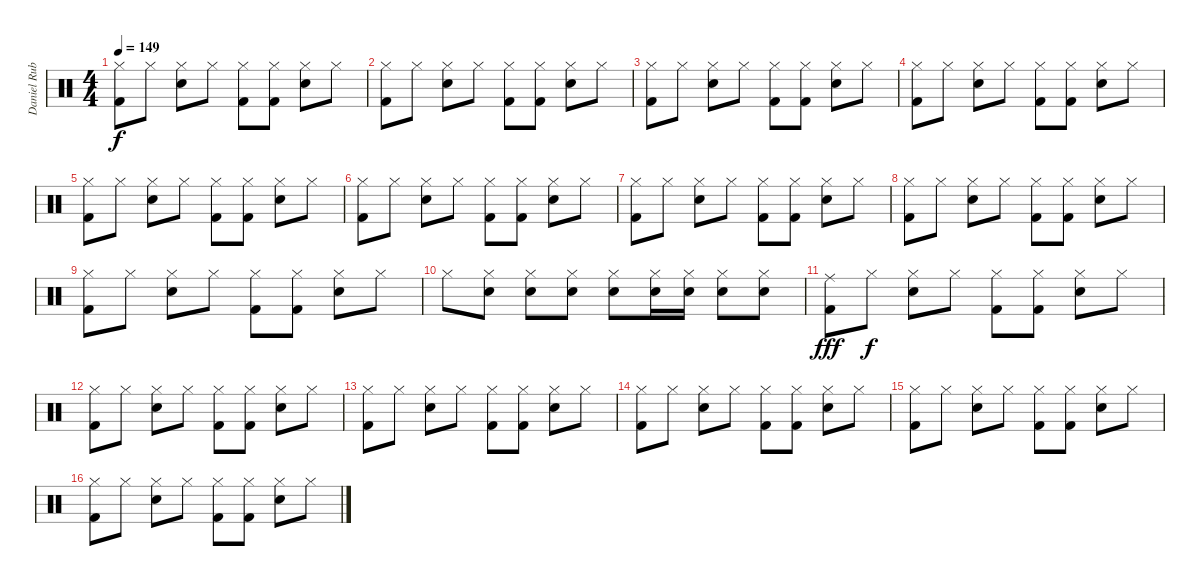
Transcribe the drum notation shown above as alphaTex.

\track ("Daniel Rubiano" "Daniel Rub") {instrument percussion}
\staff {score}
\articulation defaults
\ts (4 4)
\tempo 149
\clef neutral
\ks c
("Hi-Hat (closed)" "Kick (hit) 2").8{dy f} "Hi-Hat (closed)".8 ("Hi-Hat (closed)" "Snare (hit) 2").8 "Hi-Hat (closed)".8 ("Hi-Hat (closed)" "Kick (hit) 2").8 ("Hi-Hat (closed)" "Kick (hit) 2").8 ("Hi-Hat (closed)" "Snare (hit) 2").8 "Hi-Hat (closed)".8 |
("Hi-Hat (closed)" "Kick (hit) 2").8 "Hi-Hat (closed)".8 ("Hi-Hat (closed)" "Snare (hit) 2").8 "Hi-Hat (closed)".8 ("Hi-Hat (closed)" "Kick (hit) 2").8 ("Hi-Hat (closed)" "Kick (hit) 2").8 ("Hi-Hat (closed)" "Snare (hit) 2").8 "Hi-Hat (closed)".8 |
("Hi-Hat (closed)" "Kick (hit) 2").8 "Hi-Hat (closed)".8 ("Hi-Hat (closed)" "Snare (hit) 2").8 "Hi-Hat (closed)".8 ("Hi-Hat (closed)" "Kick (hit) 2").8 ("Hi-Hat (closed)" "Kick (hit) 2").8 ("Hi-Hat (closed)" "Snare (hit) 2").8 "Hi-Hat (closed)".8 |
("Hi-Hat (closed)" "Kick (hit) 2").8 "Hi-Hat (closed)".8 ("Hi-Hat (closed)" "Snare (hit) 2").8 "Hi-Hat (closed)".8 ("Hi-Hat (closed)" "Kick (hit) 2").8 ("Hi-Hat (closed)" "Kick (hit) 2").8 ("Hi-Hat (closed)" "Snare (hit) 2").8 "Hi-Hat (closed)".8 |
("Hi-Hat (closed)" "Kick (hit) 2").8 "Hi-Hat (closed)".8 ("Hi-Hat (closed)" "Snare (hit) 2").8 "Hi-Hat (closed)".8 ("Hi-Hat (closed)" "Kick (hit) 2").8 ("Hi-Hat (closed)" "Kick (hit) 2").8 ("Hi-Hat (closed)" "Snare (hit) 2").8 "Hi-Hat (closed)".8 |
("Hi-Hat (closed)" "Kick (hit) 2").8 "Hi-Hat (closed)".8 ("Hi-Hat (closed)" "Snare (hit) 2").8 "Hi-Hat (closed)".8 ("Hi-Hat (closed)" "Kick (hit) 2").8 ("Hi-Hat (closed)" "Kick (hit) 2").8 ("Hi-Hat (closed)" "Snare (hit) 2").8 "Hi-Hat (closed)".8 |
("Hi-Hat (closed)" "Kick (hit) 2").8 "Hi-Hat (closed)".8 ("Hi-Hat (closed)" "Snare (hit) 2").8 "Hi-Hat (closed)".8 ("Hi-Hat (closed)" "Kick (hit) 2").8 ("Hi-Hat (closed)" "Kick (hit) 2").8 ("Hi-Hat (closed)" "Snare (hit) 2").8 "Hi-Hat (closed)".8 |
("Hi-Hat (closed)" "Kick (hit) 2").8 "Hi-Hat (closed)".8 ("Hi-Hat (closed)" "Snare (hit) 2").8 "Hi-Hat (closed)".8 ("Hi-Hat (closed)" "Kick (hit) 2").8 ("Hi-Hat (closed)" "Kick (hit) 2").8 ("Hi-Hat (closed)" "Snare (hit) 2").8 "Hi-Hat (closed)".8 |
("Hi-Hat (closed)" "Kick (hit) 2").8 "Hi-Hat (closed)".8 ("Hi-Hat (closed)" "Snare (hit) 2").8 "Hi-Hat (closed)".8 ("Hi-Hat (closed)" "Kick (hit) 2").8 ("Hi-Hat (closed)" "Kick (hit) 2").8 ("Hi-Hat (closed)" "Snare (hit) 2").8 "Hi-Hat (closed)".8 |
"Hi-Hat (closed)".8 ("Hi-Hat (closed)" "Snare (hit) 2").8 ("Hi-Hat (closed)" "Snare (hit) 2").8 ("Hi-Hat (closed)" "Snare (hit) 2").8 ("Hi-Hat (closed)" "Snare (hit) 2").8 ("Hi-Hat (closed)" "Snare (hit) 2").16 ("Hi-Hat (closed)" "Snare (hit) 2").16 ("Hi-Hat (closed)" "Snare (hit) 2").8 ("Hi-Hat (closed)" "Snare (hit) 2").8 |
("Ride (middle)" "Kick (hit) 2").8{dy fff} "Hi-Hat (closed)".8{dy f} ("Hi-Hat (closed)" "Snare (hit) 2").8 "Hi-Hat (closed)".8 ("Hi-Hat (closed)" "Kick (hit) 2").8 ("Hi-Hat (closed)" "Kick (hit) 2").8 ("Hi-Hat (closed)" "Snare (hit) 2").8 "Hi-Hat (closed)".8 |
("Hi-Hat (closed)" "Kick (hit) 2").8 "Hi-Hat (closed)".8 ("Hi-Hat (closed)" "Snare (hit) 2").8 "Hi-Hat (closed)".8 ("Hi-Hat (closed)" "Kick (hit) 2").8 ("Hi-Hat (closed)" "Kick (hit) 2").8 ("Hi-Hat (closed)" "Snare (hit) 2").8 "Hi-Hat (closed)".8 |
("Hi-Hat (closed)" "Kick (hit) 2").8 "Hi-Hat (closed)".8 ("Hi-Hat (closed)" "Snare (hit) 2").8 "Hi-Hat (closed)".8 ("Hi-Hat (closed)" "Kick (hit) 2").8 ("Hi-Hat (closed)" "Kick (hit) 2").8 ("Hi-Hat (closed)" "Snare (hit) 2").8 "Hi-Hat (closed)".8 |
("Hi-Hat (closed)" "Kick (hit) 2").8 "Hi-Hat (closed)".8 ("Hi-Hat (closed)" "Snare (hit) 2").8 "Hi-Hat (closed)".8 ("Hi-Hat (closed)" "Kick (hit) 2").8 ("Hi-Hat (closed)" "Kick (hit) 2").8 ("Hi-Hat (closed)" "Snare (hit) 2").8 "Hi-Hat (closed)".8 |
("Hi-Hat (closed)" "Kick (hit) 2").8 "Hi-Hat (closed)".8 ("Hi-Hat (closed)" "Snare (hit) 2").8 "Hi-Hat (closed)".8 ("Hi-Hat (closed)" "Kick (hit) 2").8 ("Hi-Hat (closed)" "Kick (hit) 2").8 ("Hi-Hat (closed)" "Snare (hit) 2").8 "Hi-Hat (closed)".8 |
("Hi-Hat (closed)" "Kick (hit) 2").8 "Hi-Hat (closed)".8 ("Hi-Hat (closed)" "Snare (hit) 2").8 "Hi-Hat (closed)".8 ("Hi-Hat (closed)" "Kick (hit) 2").8 ("Hi-Hat (closed)" "Kick (hit) 2").8 ("Hi-Hat (closed)" "Snare (hit) 2").8 "Hi-Hat (closed)".8
